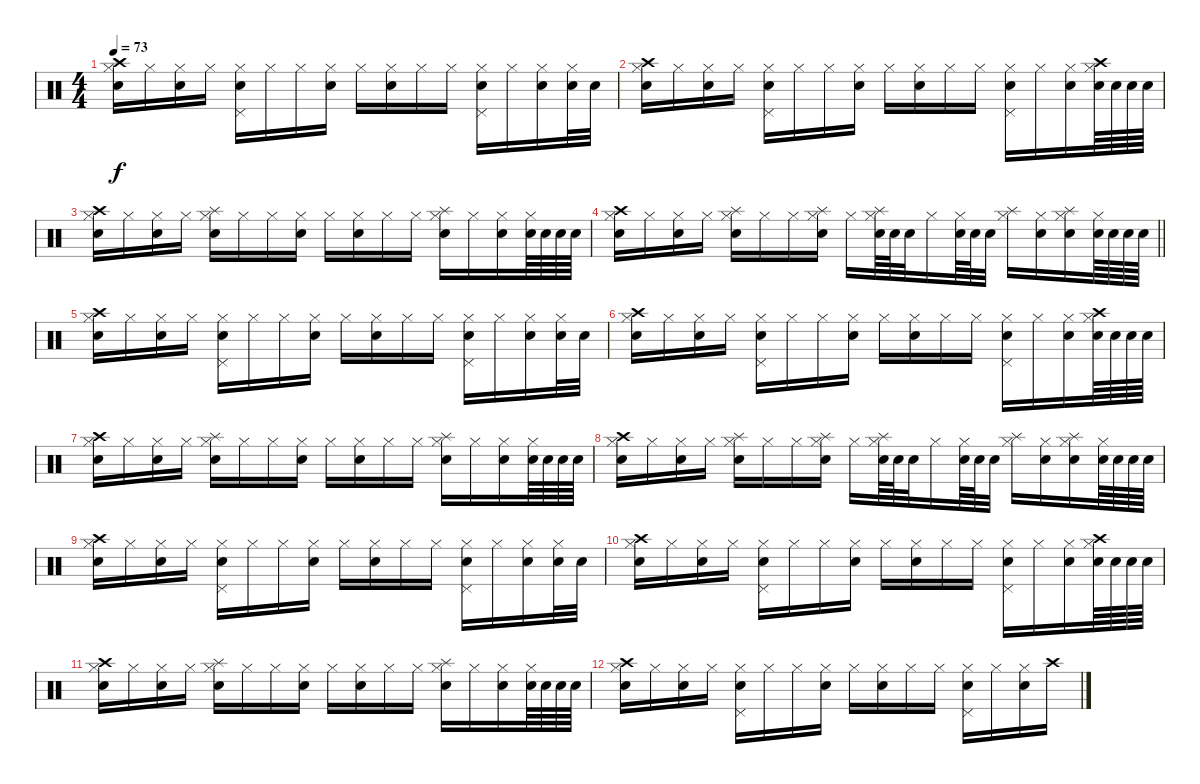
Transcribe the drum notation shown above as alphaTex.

\track "" {instrument percussion}
\staff {score}
\articulation defaults
\ts (4 4)
\tempo 73
\clef neutral
\ks c
("Crash high (hit)" "Hi-Hat (closed)" "Snare (hit) 2").16{dy f} "Hi-Hat (closed)".16 ("Hi-Hat (closed)" "Snare (hit) 2").16 "Hi-Hat (closed)".16 ("Pedal Hi-Hat (hit)" "Hi-Hat (closed)" "Snare (hit) 2").16 "Hi-Hat (closed)".16 "Hi-Hat (closed)".16 ("Hi-Hat (closed)" "Snare (hit) 2").16 "Hi-Hat (closed)".16 ("Hi-Hat (closed)" "Snare (hit) 2").16 "Hi-Hat (closed)".16 "Hi-Hat (closed)".16 ("Pedal Hi-Hat (hit)" "Hi-Hat (closed)" "Snare (hit) 2").16 "Hi-Hat (closed)".16 ("Hi-Hat (closed)" "Snare (hit) 2").16 ("Hi-Hat (closed)" "Snare (hit) 2").32 "Snare (hit) 2".32 |
("Crash high (hit)" "Hi-Hat (closed)" "Snare (hit) 2").16 "Hi-Hat (closed)".16 ("Hi-Hat (closed)" "Snare (hit) 2").16 "Hi-Hat (closed)".16 ("Pedal Hi-Hat (hit)" "Hi-Hat (closed)" "Snare (hit) 2").16 "Hi-Hat (closed)".16 "Hi-Hat (closed)".16 ("Hi-Hat (closed)" "Snare (hit) 2").16 "Hi-Hat (closed)".16 ("Hi-Hat (closed)" "Snare (hit) 2").16 "Hi-Hat (closed)".16 "Hi-Hat (closed)".16 ("Pedal Hi-Hat (hit)" "Hi-Hat (closed)" "Snare (hit) 2").16 "Hi-Hat (closed)".16 ("Hi-Hat (closed)" "Snare (hit) 2").16 ("Crash high (hit)" "Hi-Hat (closed)" "Snare (hit) 2").64 "Snare (hit) 2".64 "Snare (hit) 2".64 "Snare (hit) 2".64 |
("Crash high (hit)" "Hi-Hat (closed)" "Snare (hit) 2").16 "Hi-Hat (closed)".16 ("Hi-Hat (closed)" "Snare (hit) 2").16 "Hi-Hat (closed)".16 ("Splash (hit)" "Hi-Hat (closed)" "Snare (hit) 2").16 "Hi-Hat (closed)".16 "Hi-Hat (closed)".16 ("Hi-Hat (closed)" "Snare (hit) 2").16 "Hi-Hat (closed)".16 ("Hi-Hat (closed)" "Snare (hit) 2").16 "Hi-Hat (closed)".16 "Hi-Hat (closed)".16 ("Splash (hit)" "Hi-Hat (closed)" "Snare (hit) 2").16 "Hi-Hat (closed)".16 ("Hi-Hat (closed)" "Snare (hit) 2").16 ("Hi-Hat (closed)" "Snare (hit) 2").64 "Snare (hit) 2".64 "Snare (hit) 2".64 "Snare (hit) 2".64 |
\barLineRight lightlight
("Crash high (hit)" "Hi-Hat (closed)" "Snare (hit) 2").16 "Hi-Hat (closed)".16 ("Hi-Hat (closed)" "Snare (hit) 2").16 "Hi-Hat (closed)".16 ("Splash (hit)" "Hi-Hat (closed)" "Snare (hit) 2").16 "Hi-Hat (closed)".16 "Hi-Hat (closed)".16 ("Splash (hit)" "Hi-Hat (closed)" "Snare (hit) 2").16 "Hi-Hat (closed)".16 ("Splash (hit)" "Hi-Hat (closed)" "Snare (hit) 2").64 "Snare (hit) 2".64 "Snare (hit) 2".32 "Hi-Hat (closed)".16 ("Hi-Hat (closed)" "Snare (hit) 2").64 "Snare (hit) 2".64 "Snare (hit) 2".32 ("Splash (hit)" "Hi-Hat (closed)").16 ("Hi-Hat (closed)" "Snare (hit) 2").16 ("Splash (hit)" "Hi-Hat (closed)" "Snare (hit) 2").16 ("Hi-Hat (closed)" "Snare (hit) 2").64 "Snare (hit) 2".64 "Snare (hit) 2".64 "Snare (hit) 2".64 |
("Crash high (hit)" "Hi-Hat (closed)" "Snare (hit) 2").16 "Hi-Hat (closed)".16 ("Hi-Hat (closed)" "Snare (hit) 2").16 "Hi-Hat (closed)".16 ("Pedal Hi-Hat (hit)" "Hi-Hat (closed)" "Snare (hit) 2").16 "Hi-Hat (closed)".16 "Hi-Hat (closed)".16 ("Hi-Hat (closed)" "Snare (hit) 2").16 "Hi-Hat (closed)".16 ("Hi-Hat (closed)" "Snare (hit) 2").16 "Hi-Hat (closed)".16 "Hi-Hat (closed)".16 ("Pedal Hi-Hat (hit)" "Hi-Hat (closed)" "Snare (hit) 2").16 "Hi-Hat (closed)".16 ("Hi-Hat (closed)" "Snare (hit) 2").16 ("Hi-Hat (closed)" "Snare (hit) 2").32 "Snare (hit) 2".32 |
("Crash high (hit)" "Hi-Hat (closed)" "Snare (hit) 2").16 "Hi-Hat (closed)".16 ("Hi-Hat (closed)" "Snare (hit) 2").16 "Hi-Hat (closed)".16 ("Pedal Hi-Hat (hit)" "Hi-Hat (closed)" "Snare (hit) 2").16 "Hi-Hat (closed)".16 "Hi-Hat (closed)".16 ("Hi-Hat (closed)" "Snare (hit) 2").16 "Hi-Hat (closed)".16 ("Hi-Hat (closed)" "Snare (hit) 2").16 "Hi-Hat (closed)".16 "Hi-Hat (closed)".16 ("Pedal Hi-Hat (hit)" "Hi-Hat (closed)" "Snare (hit) 2").16 "Hi-Hat (closed)".16 ("Hi-Hat (closed)" "Snare (hit) 2").16 ("Crash high (hit)" "Hi-Hat (closed)" "Snare (hit) 2").64 "Snare (hit) 2".64 "Snare (hit) 2".64 "Snare (hit) 2".64 |
("Crash high (hit)" "Hi-Hat (closed)" "Snare (hit) 2").16 "Hi-Hat (closed)".16 ("Hi-Hat (closed)" "Snare (hit) 2").16 "Hi-Hat (closed)".16 ("Splash (hit)" "Hi-Hat (closed)" "Snare (hit) 2").16 "Hi-Hat (closed)".16 "Hi-Hat (closed)".16 ("Hi-Hat (closed)" "Snare (hit) 2").16 "Hi-Hat (closed)".16 ("Hi-Hat (closed)" "Snare (hit) 2").16 "Hi-Hat (closed)".16 "Hi-Hat (closed)".16 ("Splash (hit)" "Hi-Hat (closed)" "Snare (hit) 2").16 "Hi-Hat (closed)".16 ("Hi-Hat (closed)" "Snare (hit) 2").16 ("Hi-Hat (closed)" "Snare (hit) 2").64 "Snare (hit) 2".64 "Snare (hit) 2".64 "Snare (hit) 2".64 |
("Crash high (hit)" "Hi-Hat (closed)" "Snare (hit) 2").16 "Hi-Hat (closed)".16 ("Hi-Hat (closed)" "Snare (hit) 2").16 "Hi-Hat (closed)".16 ("Splash (hit)" "Hi-Hat (closed)" "Snare (hit) 2").16 "Hi-Hat (closed)".16 "Hi-Hat (closed)".16 ("Splash (hit)" "Hi-Hat (closed)" "Snare (hit) 2").16 "Hi-Hat (closed)".16 ("Splash (hit)" "Hi-Hat (closed)" "Snare (hit) 2").64 "Snare (hit) 2".64 "Snare (hit) 2".32 "Hi-Hat (closed)".16 ("Hi-Hat (closed)" "Snare (hit) 2").64 "Snare (hit) 2".64 "Snare (hit) 2".32 ("Splash (hit)" "Hi-Hat (closed)").16 ("Hi-Hat (closed)" "Snare (hit) 2").16 ("Splash (hit)" "Hi-Hat (closed)" "Snare (hit) 2").16 ("Hi-Hat (closed)" "Snare (hit) 2").64 "Snare (hit) 2".64 "Snare (hit) 2".64 "Snare (hit) 2".64 |
("Crash high (hit)" "Hi-Hat (closed)" "Snare (hit) 2").16 "Hi-Hat (closed)".16 ("Hi-Hat (closed)" "Snare (hit) 2").16 "Hi-Hat (closed)".16 ("Pedal Hi-Hat (hit)" "Hi-Hat (closed)" "Snare (hit) 2").16 "Hi-Hat (closed)".16 "Hi-Hat (closed)".16 ("Hi-Hat (closed)" "Snare (hit) 2").16 "Hi-Hat (closed)".16 ("Hi-Hat (closed)" "Snare (hit) 2").16 "Hi-Hat (closed)".16 "Hi-Hat (closed)".16 ("Pedal Hi-Hat (hit)" "Hi-Hat (closed)" "Snare (hit) 2").16 "Hi-Hat (closed)".16 ("Hi-Hat (closed)" "Snare (hit) 2").16 ("Hi-Hat (closed)" "Snare (hit) 2").32 "Snare (hit) 2".32 |
("Crash high (hit)" "Hi-Hat (closed)" "Snare (hit) 2").16 "Hi-Hat (closed)".16 ("Hi-Hat (closed)" "Snare (hit) 2").16 "Hi-Hat (closed)".16 ("Pedal Hi-Hat (hit)" "Hi-Hat (closed)" "Snare (hit) 2").16 "Hi-Hat (closed)".16 "Hi-Hat (closed)".16 ("Hi-Hat (closed)" "Snare (hit) 2").16 "Hi-Hat (closed)".16 ("Hi-Hat (closed)" "Snare (hit) 2").16 "Hi-Hat (closed)".16 "Hi-Hat (closed)".16 ("Pedal Hi-Hat (hit)" "Hi-Hat (closed)" "Snare (hit) 2").16 "Hi-Hat (closed)".16 ("Hi-Hat (closed)" "Snare (hit) 2").16 ("Crash high (hit)" "Hi-Hat (closed)" "Snare (hit) 2").64 "Snare (hit) 2".64 "Snare (hit) 2".64 "Snare (hit) 2".64 |
("Crash high (hit)" "Hi-Hat (closed)" "Snare (hit) 2").16 "Hi-Hat (closed)".16 ("Hi-Hat (closed)" "Snare (hit) 2").16 "Hi-Hat (closed)".16 ("Splash (hit)" "Hi-Hat (closed)" "Snare (hit) 2").16 "Hi-Hat (closed)".16 "Hi-Hat (closed)".16 ("Hi-Hat (closed)" "Snare (hit) 2").16 "Hi-Hat (closed)".16 ("Hi-Hat (closed)" "Snare (hit) 2").16 "Hi-Hat (closed)".16 "Hi-Hat (closed)".16 ("Splash (hit)" "Hi-Hat (closed)" "Snare (hit) 2").16 "Hi-Hat (closed)".16 ("Hi-Hat (closed)" "Snare (hit) 2").16 ("Hi-Hat (closed)" "Snare (hit) 2").64 "Snare (hit) 2".64 "Snare (hit) 2".64 "Snare (hit) 2".64 |
("Crash high (hit)" "Hi-Hat (closed)" "Snare (hit) 2").16 "Hi-Hat (closed)".16 ("Hi-Hat (closed)" "Snare (hit) 2").16 "Hi-Hat (closed)".16 ("Pedal Hi-Hat (hit)" "Hi-Hat (closed)" "Snare (hit) 2").16 "Hi-Hat (closed)".16 "Hi-Hat (closed)".16 ("Hi-Hat (closed)" "Snare (hit) 2").16 "Hi-Hat (closed)".16 ("Hi-Hat (closed)" "Snare (hit) 2").16 "Hi-Hat (closed)".16 "Hi-Hat (closed)".16 ("Pedal Hi-Hat (hit)" "Hi-Hat (closed)" "Snare (hit) 2").16 "Hi-Hat (closed)".16 ("Hi-Hat (closed)" "Snare (hit) 2").16 "Crash high (hit)".16
